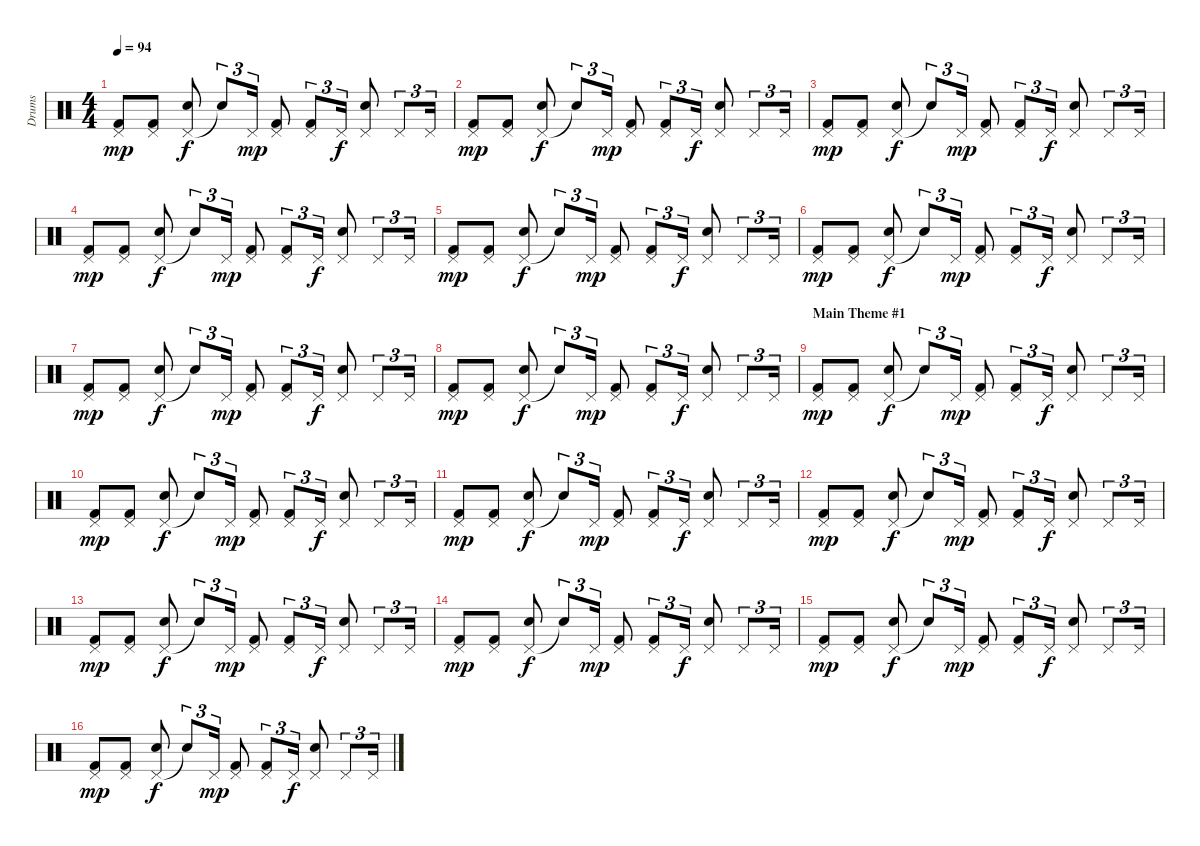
\track ("Drums" "Drums") {instrument percussion}
\staff {score}
\articulation defaults
\ts (4 4)
\tempo 94
\clef neutral
\ks c
("Pedal Hi-Hat (hit)" "Kick (hit) 2").8{dy mp} ("Pedal Hi-Hat (hit)" "Kick (hit) 2").8 ("Pedal Hi-Hat (hit)" "Electric Snare (hit)").8{dy f} "Snare (hit)"{t}.8{tu (3 2)} "Pedal Hi-Hat (hit)".16{tu (3 2) dy mp} ("Pedal Hi-Hat (hit)" "Kick (hit) 2").8 ("Pedal Hi-Hat (hit)" "Kick (hit) 2").8{tu (3 2)} "Pedal Hi-Hat (hit)".16{tu (3 2) dy f} ("Pedal Hi-Hat (hit)" "Electric Snare (hit)").8 "Pedal Hi-Hat (hit)".8{tu (3 2)} "Pedal Hi-Hat (hit)".16{tu (3 2)} |
("Pedal Hi-Hat (hit)" "Kick (hit) 2").8{dy mp} ("Pedal Hi-Hat (hit)" "Kick (hit) 2").8 ("Pedal Hi-Hat (hit)" "Electric Snare (hit)").8{dy f} "Snare (hit)"{t}.8{tu (3 2)} "Pedal Hi-Hat (hit)".16{tu (3 2) dy mp} ("Pedal Hi-Hat (hit)" "Kick (hit) 2").8 ("Pedal Hi-Hat (hit)" "Kick (hit) 2").8{tu (3 2)} "Pedal Hi-Hat (hit)".16{tu (3 2) dy f} ("Pedal Hi-Hat (hit)" "Electric Snare (hit)").8 "Pedal Hi-Hat (hit)".8{tu (3 2)} "Pedal Hi-Hat (hit)".16{tu (3 2)} |
("Pedal Hi-Hat (hit)" "Kick (hit) 2").8{dy mp} ("Pedal Hi-Hat (hit)" "Kick (hit) 2").8 ("Pedal Hi-Hat (hit)" "Electric Snare (hit)").8{dy f} "Snare (hit)"{t}.8{tu (3 2)} "Pedal Hi-Hat (hit)".16{tu (3 2) dy mp} ("Pedal Hi-Hat (hit)" "Kick (hit) 2").8 ("Pedal Hi-Hat (hit)" "Kick (hit) 2").8{tu (3 2)} "Pedal Hi-Hat (hit)".16{tu (3 2) dy f} ("Pedal Hi-Hat (hit)" "Electric Snare (hit)").8 "Pedal Hi-Hat (hit)".8{tu (3 2)} "Pedal Hi-Hat (hit)".16{tu (3 2)} |
("Pedal Hi-Hat (hit)" "Kick (hit) 2").8{dy mp} ("Pedal Hi-Hat (hit)" "Kick (hit) 2").8 ("Pedal Hi-Hat (hit)" "Electric Snare (hit)").8{dy f} "Snare (hit)"{t}.8{tu (3 2)} "Pedal Hi-Hat (hit)".16{tu (3 2) dy mp} ("Pedal Hi-Hat (hit)" "Kick (hit) 2").8 ("Pedal Hi-Hat (hit)" "Kick (hit) 2").8{tu (3 2)} "Pedal Hi-Hat (hit)".16{tu (3 2) dy f} ("Pedal Hi-Hat (hit)" "Electric Snare (hit)").8 "Pedal Hi-Hat (hit)".8{tu (3 2)} "Pedal Hi-Hat (hit)".16{tu (3 2)} |
("Pedal Hi-Hat (hit)" "Kick (hit) 2").8{dy mp} ("Pedal Hi-Hat (hit)" "Kick (hit) 2").8 ("Pedal Hi-Hat (hit)" "Electric Snare (hit)").8{dy f} "Snare (hit)"{t}.8{tu (3 2)} "Pedal Hi-Hat (hit)".16{tu (3 2) dy mp} ("Pedal Hi-Hat (hit)" "Kick (hit) 2").8 ("Pedal Hi-Hat (hit)" "Kick (hit) 2").8{tu (3 2)} "Pedal Hi-Hat (hit)".16{tu (3 2) dy f} ("Pedal Hi-Hat (hit)" "Electric Snare (hit)").8 "Pedal Hi-Hat (hit)".8{tu (3 2)} "Pedal Hi-Hat (hit)".16{tu (3 2)} |
("Pedal Hi-Hat (hit)" "Kick (hit) 2").8{dy mp} ("Pedal Hi-Hat (hit)" "Kick (hit) 2").8 ("Pedal Hi-Hat (hit)" "Electric Snare (hit)").8{dy f} "Snare (hit)"{t}.8{tu (3 2)} "Pedal Hi-Hat (hit)".16{tu (3 2) dy mp} ("Pedal Hi-Hat (hit)" "Kick (hit) 2").8 ("Pedal Hi-Hat (hit)" "Kick (hit) 2").8{tu (3 2)} "Pedal Hi-Hat (hit)".16{tu (3 2) dy f} ("Pedal Hi-Hat (hit)" "Electric Snare (hit)").8 "Pedal Hi-Hat (hit)".8{tu (3 2)} "Pedal Hi-Hat (hit)".16{tu (3 2)} |
("Pedal Hi-Hat (hit)" "Kick (hit) 2").8{dy mp} ("Pedal Hi-Hat (hit)" "Kick (hit) 2").8 ("Pedal Hi-Hat (hit)" "Electric Snare (hit)").8{dy f} "Snare (hit)"{t}.8{tu (3 2)} "Pedal Hi-Hat (hit)".16{tu (3 2) dy mp} ("Pedal Hi-Hat (hit)" "Kick (hit) 2").8 ("Pedal Hi-Hat (hit)" "Kick (hit) 2").8{tu (3 2)} "Pedal Hi-Hat (hit)".16{tu (3 2) dy f} ("Pedal Hi-Hat (hit)" "Electric Snare (hit)").8 "Pedal Hi-Hat (hit)".8{tu (3 2)} "Pedal Hi-Hat (hit)".16{tu (3 2)} |
("Pedal Hi-Hat (hit)" "Kick (hit) 2").8{dy mp} ("Pedal Hi-Hat (hit)" "Kick (hit) 2").8 ("Pedal Hi-Hat (hit)" "Electric Snare (hit)").8{dy f} "Snare (hit)"{t}.8{tu (3 2)} "Pedal Hi-Hat (hit)".16{tu (3 2) dy mp} ("Pedal Hi-Hat (hit)" "Kick (hit) 2").8 ("Pedal Hi-Hat (hit)" "Kick (hit) 2").8{tu (3 2)} "Pedal Hi-Hat (hit)".16{tu (3 2) dy f} ("Pedal Hi-Hat (hit)" "Electric Snare (hit)").8 "Pedal Hi-Hat (hit)".8{tu (3 2)} "Pedal Hi-Hat (hit)".16{tu (3 2)} |
\section ("" "Main Theme #1")
("Pedal Hi-Hat (hit)" "Kick (hit) 2").8{dy mp} ("Pedal Hi-Hat (hit)" "Kick (hit) 2").8 ("Pedal Hi-Hat (hit)" "Electric Snare (hit)").8{dy f} "Snare (hit)"{t}.8{tu (3 2)} "Pedal Hi-Hat (hit)".16{tu (3 2) dy mp} ("Pedal Hi-Hat (hit)" "Kick (hit) 2").8 ("Pedal Hi-Hat (hit)" "Kick (hit) 2").8{tu (3 2)} "Pedal Hi-Hat (hit)".16{tu (3 2) dy f} ("Pedal Hi-Hat (hit)" "Electric Snare (hit)").8 "Pedal Hi-Hat (hit)".8{tu (3 2)} "Pedal Hi-Hat (hit)".16{tu (3 2)} |
("Pedal Hi-Hat (hit)" "Kick (hit) 2").8{dy mp} ("Pedal Hi-Hat (hit)" "Kick (hit) 2").8 ("Pedal Hi-Hat (hit)" "Electric Snare (hit)").8{dy f} "Snare (hit)"{t}.8{tu (3 2)} "Pedal Hi-Hat (hit)".16{tu (3 2) dy mp} ("Pedal Hi-Hat (hit)" "Kick (hit) 2").8 ("Pedal Hi-Hat (hit)" "Kick (hit) 2").8{tu (3 2)} "Pedal Hi-Hat (hit)".16{tu (3 2) dy f} ("Pedal Hi-Hat (hit)" "Electric Snare (hit)").8 "Pedal Hi-Hat (hit)".8{tu (3 2)} "Pedal Hi-Hat (hit)".16{tu (3 2)} |
("Pedal Hi-Hat (hit)" "Kick (hit) 2").8{dy mp} ("Pedal Hi-Hat (hit)" "Kick (hit) 2").8 ("Pedal Hi-Hat (hit)" "Electric Snare (hit)").8{dy f} "Snare (hit)"{t}.8{tu (3 2)} "Pedal Hi-Hat (hit)".16{tu (3 2) dy mp} ("Pedal Hi-Hat (hit)" "Kick (hit) 2").8 ("Pedal Hi-Hat (hit)" "Kick (hit) 2").8{tu (3 2)} "Pedal Hi-Hat (hit)".16{tu (3 2) dy f} ("Pedal Hi-Hat (hit)" "Electric Snare (hit)").8 "Pedal Hi-Hat (hit)".8{tu (3 2)} "Pedal Hi-Hat (hit)".16{tu (3 2)} |
("Pedal Hi-Hat (hit)" "Kick (hit) 2").8{dy mp} ("Pedal Hi-Hat (hit)" "Kick (hit) 2").8 ("Pedal Hi-Hat (hit)" "Electric Snare (hit)").8{dy f} "Snare (hit)"{t}.8{tu (3 2)} "Pedal Hi-Hat (hit)".16{tu (3 2) dy mp} ("Pedal Hi-Hat (hit)" "Kick (hit) 2").8 ("Pedal Hi-Hat (hit)" "Kick (hit) 2").8{tu (3 2)} "Pedal Hi-Hat (hit)".16{tu (3 2) dy f} ("Pedal Hi-Hat (hit)" "Electric Snare (hit)").8 "Pedal Hi-Hat (hit)".8{tu (3 2)} "Pedal Hi-Hat (hit)".16{tu (3 2)} |
("Pedal Hi-Hat (hit)" "Kick (hit) 2").8{dy mp} ("Pedal Hi-Hat (hit)" "Kick (hit) 2").8 ("Pedal Hi-Hat (hit)" "Electric Snare (hit)").8{dy f} "Snare (hit)"{t}.8{tu (3 2)} "Pedal Hi-Hat (hit)".16{tu (3 2) dy mp} ("Pedal Hi-Hat (hit)" "Kick (hit) 2").8 ("Pedal Hi-Hat (hit)" "Kick (hit) 2").8{tu (3 2)} "Pedal Hi-Hat (hit)".16{tu (3 2) dy f} ("Pedal Hi-Hat (hit)" "Electric Snare (hit)").8 "Pedal Hi-Hat (hit)".8{tu (3 2)} "Pedal Hi-Hat (hit)".16{tu (3 2)} |
("Pedal Hi-Hat (hit)" "Kick (hit) 2").8{dy mp} ("Pedal Hi-Hat (hit)" "Kick (hit) 2").8 ("Pedal Hi-Hat (hit)" "Electric Snare (hit)").8{dy f} "Snare (hit)"{t}.8{tu (3 2)} "Pedal Hi-Hat (hit)".16{tu (3 2) dy mp} ("Pedal Hi-Hat (hit)" "Kick (hit) 2").8 ("Pedal Hi-Hat (hit)" "Kick (hit) 2").8{tu (3 2)} "Pedal Hi-Hat (hit)".16{tu (3 2) dy f} ("Pedal Hi-Hat (hit)" "Electric Snare (hit)").8 "Pedal Hi-Hat (hit)".8{tu (3 2)} "Pedal Hi-Hat (hit)".16{tu (3 2)} |
("Pedal Hi-Hat (hit)" "Kick (hit) 2").8{dy mp} ("Pedal Hi-Hat (hit)" "Kick (hit) 2").8 ("Pedal Hi-Hat (hit)" "Electric Snare (hit)").8{dy f} "Snare (hit)"{t}.8{tu (3 2)} "Pedal Hi-Hat (hit)".16{tu (3 2) dy mp} ("Pedal Hi-Hat (hit)" "Kick (hit) 2").8 ("Pedal Hi-Hat (hit)" "Kick (hit) 2").8{tu (3 2)} "Pedal Hi-Hat (hit)".16{tu (3 2) dy f} ("Pedal Hi-Hat (hit)" "Electric Snare (hit)").8 "Pedal Hi-Hat (hit)".8{tu (3 2)} "Pedal Hi-Hat (hit)".16{tu (3 2)} |
("Pedal Hi-Hat (hit)" "Kick (hit) 2").8{dy mp} ("Pedal Hi-Hat (hit)" "Kick (hit) 2").8 ("Pedal Hi-Hat (hit)" "Electric Snare (hit)").8{dy f} "Snare (hit)"{t}.8{tu (3 2)} "Pedal Hi-Hat (hit)".16{tu (3 2) dy mp} ("Pedal Hi-Hat (hit)" "Kick (hit) 2").8 ("Pedal Hi-Hat (hit)" "Kick (hit) 2").8{tu (3 2)} "Pedal Hi-Hat (hit)".16{tu (3 2) dy f} ("Pedal Hi-Hat (hit)" "Electric Snare (hit)").8 "Pedal Hi-Hat (hit)".8{tu (3 2)} "Pedal Hi-Hat (hit)".16{tu (3 2)}
